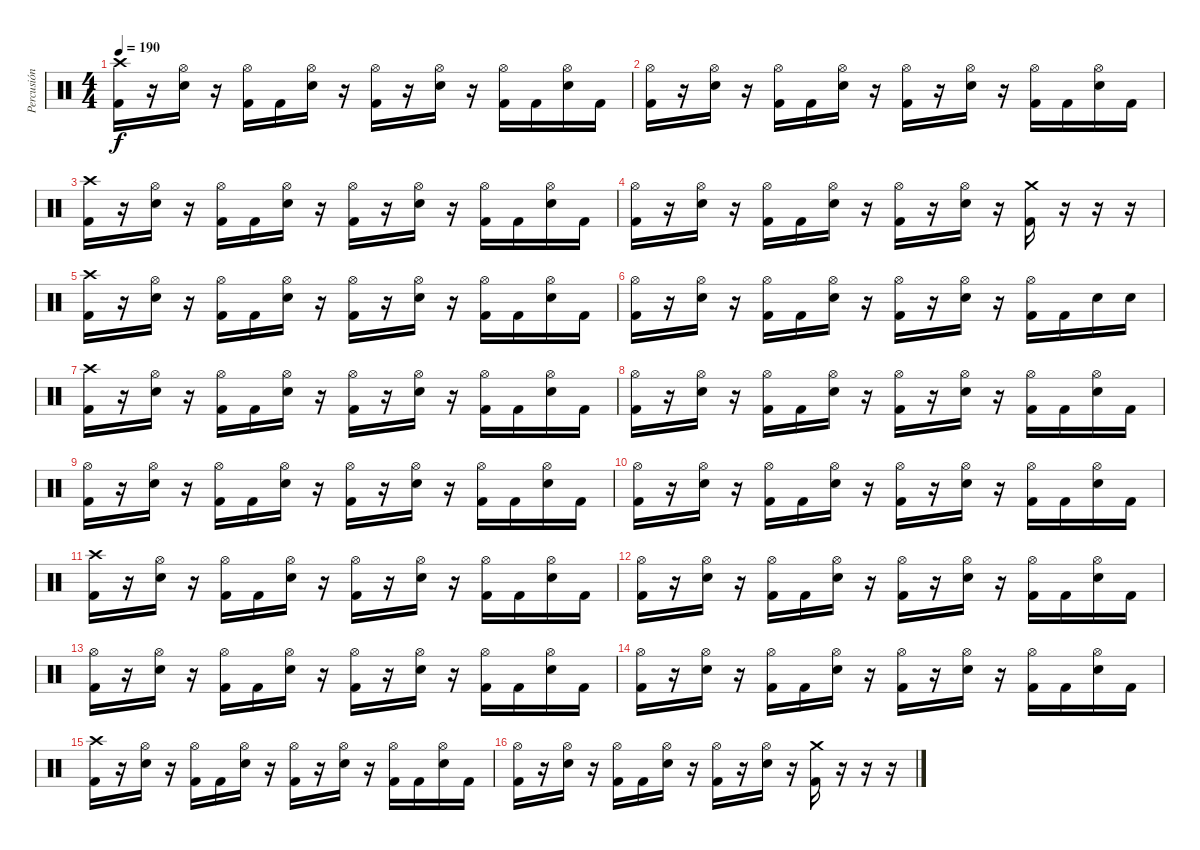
\track ("Percusión" "Percusión") {instrument percussion}
\staff {score}
\articulation defaults
\ts (4 4)
\tempo 190
\clef neutral
\ks c
("Crash high (hit)" "Kick (hit) 2").16{dy f} r.16 ("Hi-Hat (open)" "Electric Snare (hit)").16 r.16 ("Hi-Hat (open)" "Kick (hit) 2").16 "Kick (hit) 2".16 ("Hi-Hat (open)" "Electric Snare (hit)").16 r.16 ("Hi-Hat (open)" "Kick (hit) 2").16 r.16 ("Hi-Hat (open)" "Electric Snare (hit)").16 r.16 ("Hi-Hat (open)" "Kick (hit) 2").16 "Kick (hit) 2".16 ("Hi-Hat (open)" "Electric Snare (hit)").16 "Kick (hit) 2".16 |
("Hi-Hat (open)" "Kick (hit) 2").16 r.16 ("Hi-Hat (open)" "Electric Snare (hit)").16 r.16 ("Hi-Hat (open)" "Kick (hit) 2").16 "Kick (hit) 2".16 ("Hi-Hat (open)" "Electric Snare (hit)").16 r.16 ("Hi-Hat (open)" "Kick (hit) 2").16 r.16 ("Hi-Hat (open)" "Electric Snare (hit)").16 r.16 ("Hi-Hat (open)" "Kick (hit) 2").16 "Kick (hit) 2".16 ("Hi-Hat (open)" "Electric Snare (hit)").16 "Kick (hit) 2".16 |
("Crash high (hit)" "Kick (hit) 2").16 r.16 ("Hi-Hat (open)" "Electric Snare (hit)").16 r.16 ("Hi-Hat (open)" "Kick (hit) 2").16 "Kick (hit) 2".16 ("Hi-Hat (open)" "Electric Snare (hit)").16 r.16 ("Hi-Hat (open)" "Kick (hit) 2").16 r.16 ("Hi-Hat (open)" "Electric Snare (hit)").16 r.16 ("Hi-Hat (open)" "Kick (hit) 2").16 "Kick (hit) 2".16 ("Hi-Hat (open)" "Electric Snare (hit)").16 "Kick (hit) 2".16 |
("Hi-Hat (open)" "Kick (hit) 2").16 r.16 ("Hi-Hat (open)" "Electric Snare (hit)").16 r.16 ("Hi-Hat (open)" "Kick (hit) 2").16 "Kick (hit) 2".16 ("Hi-Hat (open)" "Electric Snare (hit)").16 r.16 ("Hi-Hat (open)" "Kick (hit) 2").16 r.16 ("Hi-Hat (open)" "Electric Snare (hit)").16 r.16 ("Crash medium (hit)" "Kick (hit) 2").16 r.16 r.16 r.16 |
("Crash high (hit)" "Kick (hit) 2").16 r.16 ("Hi-Hat (open)" "Electric Snare (hit)").16 r.16 ("Hi-Hat (open)" "Kick (hit) 2").16 "Kick (hit) 2".16 ("Hi-Hat (open)" "Electric Snare (hit)").16 r.16 ("Hi-Hat (open)" "Kick (hit) 2").16 r.16 ("Hi-Hat (open)" "Electric Snare (hit)").16 r.16 ("Hi-Hat (open)" "Kick (hit) 2").16 "Kick (hit) 2".16 ("Hi-Hat (open)" "Electric Snare (hit)").16 "Kick (hit) 2".16 |
("Hi-Hat (open)" "Kick (hit) 2").16 r.16 ("Hi-Hat (open)" "Electric Snare (hit)").16 r.16 ("Hi-Hat (open)" "Kick (hit) 2").16 "Kick (hit) 2".16 ("Hi-Hat (open)" "Electric Snare (hit)").16 r.16 ("Hi-Hat (open)" "Kick (hit) 2").16 r.16 ("Hi-Hat (open)" "Electric Snare (hit)").16 r.16 ("Hi-Hat (open)" "Kick (hit) 2").16 "Kick (hit) 2".16 "Electric Snare (hit)".16 "Electric Snare (hit)".16 |
("Crash high (hit)" "Kick (hit) 2").16 r.16 ("Hi-Hat (open)" "Electric Snare (hit)").16 r.16 ("Hi-Hat (open)" "Kick (hit) 2").16 "Kick (hit) 2".16 ("Hi-Hat (open)" "Electric Snare (hit)").16 r.16 ("Hi-Hat (open)" "Kick (hit) 2").16 r.16 ("Hi-Hat (open)" "Electric Snare (hit)").16 r.16 ("Hi-Hat (open)" "Kick (hit) 2").16 "Kick (hit) 2".16 ("Hi-Hat (open)" "Electric Snare (hit)").16 "Kick (hit) 2".16 |
("Hi-Hat (open)" "Kick (hit) 2").16 r.16 ("Hi-Hat (open)" "Electric Snare (hit)").16 r.16 ("Hi-Hat (open)" "Kick (hit) 2").16 "Kick (hit) 2".16 ("Hi-Hat (open)" "Electric Snare (hit)").16 r.16 ("Hi-Hat (open)" "Kick (hit) 2").16 r.16 ("Hi-Hat (open)" "Electric Snare (hit)").16 r.16 ("Hi-Hat (open)" "Kick (hit) 2").16 "Kick (hit) 2".16 ("Hi-Hat (open)" "Electric Snare (hit)").16 "Kick (hit) 2".16 |
("Hi-Hat (open)" "Kick (hit) 2").16 r.16 ("Hi-Hat (open)" "Electric Snare (hit)").16 r.16 ("Hi-Hat (open)" "Kick (hit) 2").16 "Kick (hit) 2".16 ("Hi-Hat (open)" "Electric Snare (hit)").16 r.16 ("Hi-Hat (open)" "Kick (hit) 2").16 r.16 ("Hi-Hat (open)" "Electric Snare (hit)").16 r.16 ("Hi-Hat (open)" "Kick (hit) 2").16 "Kick (hit) 2".16 ("Hi-Hat (open)" "Electric Snare (hit)").16 "Kick (hit) 2".16 |
("Hi-Hat (open)" "Kick (hit) 2").16 r.16 ("Hi-Hat (open)" "Electric Snare (hit)").16 r.16 ("Hi-Hat (open)" "Kick (hit) 2").16 "Kick (hit) 2".16 ("Hi-Hat (open)" "Electric Snare (hit)").16 r.16 ("Hi-Hat (open)" "Kick (hit) 2").16 r.16 ("Hi-Hat (open)" "Electric Snare (hit)").16 r.16 ("Hi-Hat (open)" "Kick (hit) 2").16 "Kick (hit) 2".16 ("Hi-Hat (open)" "Electric Snare (hit)").16 "Kick (hit) 2".16 |
("Crash high (hit)" "Kick (hit) 2").16 r.16 ("Hi-Hat (open)" "Electric Snare (hit)").16 r.16 ("Hi-Hat (open)" "Kick (hit) 2").16 "Kick (hit) 2".16 ("Hi-Hat (open)" "Electric Snare (hit)").16 r.16 ("Hi-Hat (open)" "Kick (hit) 2").16 r.16 ("Hi-Hat (open)" "Electric Snare (hit)").16 r.16 ("Hi-Hat (open)" "Kick (hit) 2").16 "Kick (hit) 2".16 ("Hi-Hat (open)" "Electric Snare (hit)").16 "Kick (hit) 2".16 |
("Hi-Hat (open)" "Kick (hit) 2").16 r.16 ("Hi-Hat (open)" "Electric Snare (hit)").16 r.16 ("Hi-Hat (open)" "Kick (hit) 2").16 "Kick (hit) 2".16 ("Hi-Hat (open)" "Electric Snare (hit)").16 r.16 ("Hi-Hat (open)" "Kick (hit) 2").16 r.16 ("Hi-Hat (open)" "Electric Snare (hit)").16 r.16 ("Hi-Hat (open)" "Kick (hit) 2").16 "Kick (hit) 2".16 ("Hi-Hat (open)" "Electric Snare (hit)").16 "Kick (hit) 2".16 |
("Hi-Hat (open)" "Kick (hit) 2").16 r.16 ("Hi-Hat (open)" "Electric Snare (hit)").16 r.16 ("Hi-Hat (open)" "Kick (hit) 2").16 "Kick (hit) 2".16 ("Hi-Hat (open)" "Electric Snare (hit)").16 r.16 ("Hi-Hat (open)" "Kick (hit) 2").16 r.16 ("Hi-Hat (open)" "Electric Snare (hit)").16 r.16 ("Hi-Hat (open)" "Kick (hit) 2").16 "Kick (hit) 2".16 ("Hi-Hat (open)" "Electric Snare (hit)").16 "Kick (hit) 2".16 |
("Hi-Hat (open)" "Kick (hit) 2").16 r.16 ("Hi-Hat (open)" "Electric Snare (hit)").16 r.16 ("Hi-Hat (open)" "Kick (hit) 2").16 "Kick (hit) 2".16 ("Hi-Hat (open)" "Electric Snare (hit)").16 r.16 ("Hi-Hat (open)" "Kick (hit) 2").16 r.16 ("Hi-Hat (open)" "Electric Snare (hit)").16 r.16 ("Hi-Hat (open)" "Kick (hit) 2").16 "Kick (hit) 2".16 ("Hi-Hat (open)" "Electric Snare (hit)").16 "Kick (hit) 2".16 |
("Crash high (hit)" "Kick (hit) 2").16 r.16 ("Hi-Hat (open)" "Electric Snare (hit)").16 r.16 ("Hi-Hat (open)" "Kick (hit) 2").16 "Kick (hit) 2".16 ("Hi-Hat (open)" "Electric Snare (hit)").16 r.16 ("Hi-Hat (open)" "Kick (hit) 2").16 r.16 ("Hi-Hat (open)" "Electric Snare (hit)").16 r.16 ("Hi-Hat (open)" "Kick (hit) 2").16 "Kick (hit) 2".16 ("Hi-Hat (open)" "Electric Snare (hit)").16 "Kick (hit) 2".16 |
("Hi-Hat (open)" "Kick (hit) 2").16 r.16 ("Hi-Hat (open)" "Electric Snare (hit)").16 r.16 ("Hi-Hat (open)" "Kick (hit) 2").16 "Kick (hit) 2".16 ("Hi-Hat (open)" "Electric Snare (hit)").16 r.16 ("Hi-Hat (open)" "Kick (hit) 2").16 r.16 ("Hi-Hat (open)" "Electric Snare (hit)").16 r.16 ("Crash medium (hit)" "Kick (hit) 2").16 r.16 r.16 r.16
